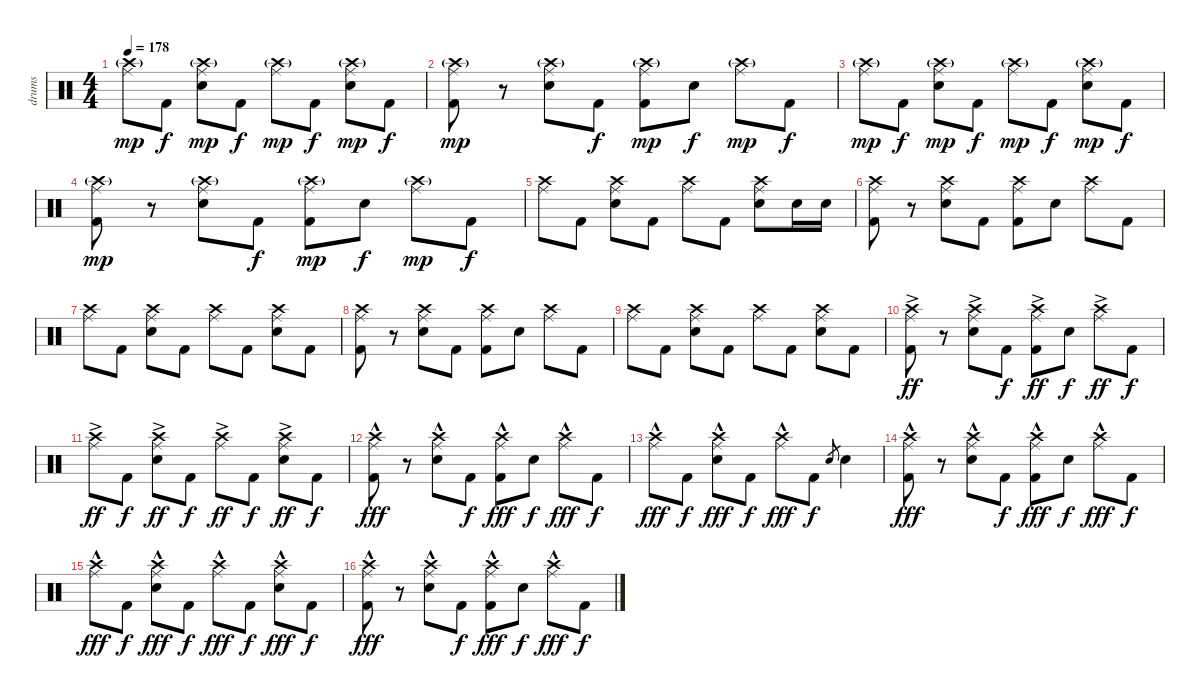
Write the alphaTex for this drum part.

\track ("drums" "drums") {instrument percussion}
\staff {score}
\articulation defaults
\ts (4 4)
\tempo 178
\clef neutral
\ks c
("Ride (middle)" "Crash high (hit)"{g}).8{dy mp} "Kick (hit) 2".8{dy f} ("Ride (middle)" "Crash high (hit)"{g} "Snare (hit) 2").8{dy mp} "Kick (hit) 2".8{dy f} ("Ride (middle)" "Crash high (hit)"{g}).8{dy mp} "Kick (hit) 2".8{dy f} ("Ride (middle)" "Crash high (hit)"{g} "Snare (hit) 2").8{dy mp} "Kick (hit) 2".8{dy f} |
("Ride (middle)" "Crash high (hit)"{g} "Kick (hit) 2").8{dy mp} r.8 ("Ride (middle)" "Crash high (hit)"{g} "Snare (hit) 2").8 "Kick (hit) 2".8{dy f} ("Ride (middle)" "Crash high (hit)"{g} "Kick (hit) 2").8{dy mp} "Snare (hit) 2".8{dy f} ("Ride (middle)" "Crash high (hit)"{g}).8{dy mp} "Kick (hit) 2".8{dy f} |
("Ride (middle)" "Crash high (hit)"{g}).8{dy mp} "Kick (hit) 2".8{dy f} ("Ride (middle)" "Crash high (hit)"{g} "Snare (hit) 2").8{dy mp} "Kick (hit) 2".8{dy f} ("Ride (middle)" "Crash high (hit)"{g}).8{dy mp} "Kick (hit) 2".8{dy f} ("Ride (middle)" "Crash high (hit)"{g} "Snare (hit) 2").8{dy mp} "Kick (hit) 2".8{dy f} |
("Ride (middle)" "Crash high (hit)"{g} "Kick (hit) 2").8{dy mp} r.8 ("Ride (middle)" "Crash high (hit)"{g} "Snare (hit) 2").8 "Kick (hit) 2".8{dy f} ("Ride (middle)" "Crash high (hit)"{g} "Kick (hit) 2").8{dy mp} "Snare (hit) 2".8{dy f} ("Ride (middle)" "Crash high (hit)"{g}).8{dy mp} "Kick (hit) 2".8{dy f} |
("Ride (middle)" "Crash high (hit)").8 "Kick (hit) 2".8 ("Ride (middle)" "Crash high (hit)" "Snare (hit) 2").8 "Kick (hit) 2".8 ("Ride (middle)" "Crash high (hit)").8 "Kick (hit) 2".8 ("Ride (middle)" "Crash high (hit)" "Snare (hit) 2").8 "Snare (hit) 2".16 "Snare (hit) 2".16 |
("Ride (middle)" "Crash high (hit)" "Kick (hit) 2").8 r.8 ("Ride (middle)" "Crash high (hit)" "Snare (hit) 2").8 "Kick (hit) 2".8 ("Ride (middle)" "Crash high (hit)" "Kick (hit) 2").8 "Snare (hit) 2".8 ("Ride (middle)" "Crash high (hit)").8 "Kick (hit) 2".8 |
("Ride (middle)" "Crash high (hit)").8 "Kick (hit) 2".8 ("Ride (middle)" "Crash high (hit)" "Snare (hit) 2").8 "Kick (hit) 2".8 ("Ride (middle)" "Crash high (hit)").8 "Kick (hit) 2".8 ("Ride (middle)" "Crash high (hit)" "Snare (hit) 2").8 "Kick (hit) 2".8 |
("Ride (middle)" "Crash high (hit)" "Kick (hit) 2").8 r.8 ("Ride (middle)" "Crash high (hit)" "Snare (hit) 2").8 "Kick (hit) 2".8 ("Ride (middle)" "Crash high (hit)" "Kick (hit) 2").8 "Snare (hit) 2".8 ("Ride (middle)" "Crash high (hit)").8 "Kick (hit) 2".8 |
("Ride (middle)" "Crash high (hit)").8 "Kick (hit) 2".8 ("Ride (middle)" "Crash high (hit)" "Snare (hit) 2").8 "Kick (hit) 2".8 ("Ride (middle)" "Crash high (hit)").8 "Kick (hit) 2".8 ("Ride (middle)" "Crash high (hit)" "Snare (hit) 2").8 "Kick (hit) 2".8 |
("Ride (middle)" "Crash high (hit)"{ac} "Kick (hit) 2").8{dy ff} r.8 ("Ride (middle)" "Crash high (hit)"{ac} "Snare (hit) 2").8 "Kick (hit) 2".8{dy f} ("Ride (middle)" "Crash high (hit)"{ac} "Kick (hit) 2").8{dy ff} "Snare (hit) 2".8{dy f} ("Ride (middle)" "Crash high (hit)"{ac}).8{dy ff} "Kick (hit) 2".8{dy f} |
("Ride (middle)" "Crash high (hit)"{ac}).8{dy ff} "Kick (hit) 2".8{dy f} ("Ride (middle)" "Crash high (hit)"{ac} "Snare (hit) 2").8{dy ff} "Kick (hit) 2".8{dy f} ("Ride (middle)" "Crash high (hit)"{ac}).8{dy ff} "Kick (hit) 2".8{dy f} ("Ride (middle)" "Crash high (hit)"{ac} "Snare (hit) 2").8{dy ff} "Kick (hit) 2".8{dy f} |
("Ride (middle)" "Crash high (hit)"{hac} "Kick (hit) 2").8{dy fff} r.8 ("Ride (middle)" "Crash high (hit)"{hac} "Snare (hit) 2").8 "Kick (hit) 2".8{dy f} ("Ride (middle)" "Crash high (hit)"{hac} "Kick (hit) 2").8{dy fff} "Snare (hit) 2".8{dy f} ("Ride (middle)" "Crash high (hit)"{hac}).8{dy fff} "Kick (hit) 2".8{dy f} |
("Ride (middle)" "Crash high (hit)"{hac}).8{dy fff} "Kick (hit) 2".8{dy f} ("Ride (middle)" "Crash high (hit)"{hac} "Snare (hit) 2").8{dy fff} "Kick (hit) 2".8{dy f} ("Ride (middle)" "Crash high (hit)"{hac}).8{dy fff} "Kick (hit) 2".8{dy f} "Snare (hit) 2".8{gr} "Snare (hit) 2".4 |
("Ride (middle)" "Crash high (hit)"{hac} "Kick (hit) 2").8{dy fff} r.8 ("Ride (middle)" "Crash high (hit)"{hac} "Snare (hit) 2").8 "Kick (hit) 2".8{dy f} ("Ride (middle)" "Crash high (hit)"{hac} "Kick (hit) 2").8{dy fff} "Snare (hit) 2".8{dy f} ("Ride (middle)" "Crash high (hit)"{hac}).8{dy fff} "Kick (hit) 2".8{dy f} |
("Ride (middle)" "Crash high (hit)"{hac}).8{dy fff} "Kick (hit) 2".8{dy f} ("Ride (middle)" "Crash high (hit)"{hac} "Snare (hit) 2").8{dy fff} "Kick (hit) 2".8{dy f} ("Ride (middle)" "Crash high (hit)"{hac}).8{dy fff} "Kick (hit) 2".8{dy f} ("Ride (middle)" "Crash high (hit)"{hac} "Snare (hit) 2").8{dy fff} "Kick (hit) 2".8{dy f} |
("Ride (middle)" "Crash high (hit)"{hac} "Kick (hit) 2").8{dy fff} r.8 ("Ride (middle)" "Crash high (hit)"{hac} "Snare (hit) 2").8 "Kick (hit) 2".8{dy f} ("Ride (middle)" "Crash high (hit)"{hac} "Kick (hit) 2").8{dy fff} "Snare (hit) 2".8{dy f} ("Ride (middle)" "Crash high (hit)"{hac}).8{dy fff} "Kick (hit) 2".8{dy f}
